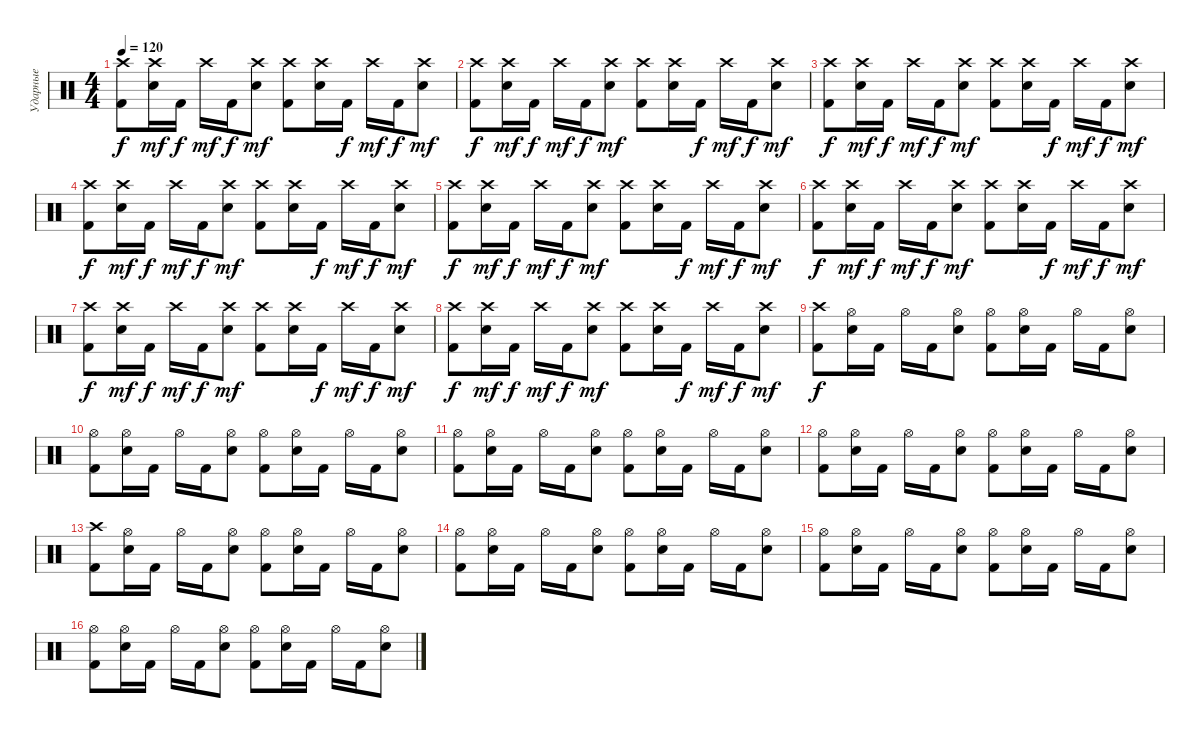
\track ("Ударные" "Ударные") {instrument percussion}
\staff {score}
\articulation defaults
\ts (4 4)
\tempo 120
\clef neutral
\ks c
("Crash high (hit)" "Kick (hit) 2").8{dy f} ("Crash high (hit)" "Electric Snare (hit)").16{dy mf} "Kick (hit) 2".16{dy f} "Crash high (hit)".16{dy mf} "Kick (hit) 2".16{dy f} ("Crash high (hit)" "Electric Snare (hit)").8{dy mf} ("Crash high (hit)" "Kick (hit) 2").8 ("Crash high (hit)" "Electric Snare (hit)").16 "Kick (hit) 2".16{dy f} "Crash high (hit)".16{dy mf} "Kick (hit) 2".16{dy f} ("Crash high (hit)" "Electric Snare (hit)").8{dy mf} |
("Crash high (hit)" "Kick (hit) 2").8{dy f} ("Crash high (hit)" "Electric Snare (hit)").16{dy mf} "Kick (hit) 2".16{dy f} "Crash high (hit)".16{dy mf} "Kick (hit) 2".16{dy f} ("Crash high (hit)" "Electric Snare (hit)").8{dy mf} ("Crash high (hit)" "Kick (hit) 2").8 ("Crash high (hit)" "Electric Snare (hit)").16 "Kick (hit) 2".16{dy f} "Crash high (hit)".16{dy mf} "Kick (hit) 2".16{dy f} ("Crash high (hit)" "Electric Snare (hit)").8{dy mf} |
("Crash high (hit)" "Kick (hit) 2").8{dy f} ("Crash high (hit)" "Electric Snare (hit)").16{dy mf} "Kick (hit) 2".16{dy f} "Crash high (hit)".16{dy mf} "Kick (hit) 2".16{dy f} ("Crash high (hit)" "Electric Snare (hit)").8{dy mf} ("Crash high (hit)" "Kick (hit) 2").8 ("Crash high (hit)" "Electric Snare (hit)").16 "Kick (hit) 2".16{dy f} "Crash high (hit)".16{dy mf} "Kick (hit) 2".16{dy f} ("Crash high (hit)" "Electric Snare (hit)").8{dy mf} |
("Crash high (hit)" "Kick (hit) 2").8{dy f} ("Crash high (hit)" "Electric Snare (hit)").16{dy mf} "Kick (hit) 2".16{dy f} "Crash high (hit)".16{dy mf} "Kick (hit) 2".16{dy f} ("Crash high (hit)" "Electric Snare (hit)").8{dy mf} ("Crash high (hit)" "Kick (hit) 2").8 ("Crash high (hit)" "Electric Snare (hit)").16 "Kick (hit) 2".16{dy f} "Crash high (hit)".16{dy mf} "Kick (hit) 2".16{dy f} ("Crash high (hit)" "Electric Snare (hit)").8{dy mf} |
("Crash high (hit)" "Kick (hit) 2").8{dy f} ("Crash high (hit)" "Electric Snare (hit)").16{dy mf} "Kick (hit) 2".16{dy f} "Crash high (hit)".16{dy mf} "Kick (hit) 2".16{dy f} ("Crash high (hit)" "Electric Snare (hit)").8{dy mf} ("Crash high (hit)" "Kick (hit) 2").8 ("Crash high (hit)" "Electric Snare (hit)").16 "Kick (hit) 2".16{dy f} "Crash high (hit)".16{dy mf} "Kick (hit) 2".16{dy f} ("Crash high (hit)" "Electric Snare (hit)").8{dy mf} |
("Crash high (hit)" "Kick (hit) 2").8{dy f} ("Crash high (hit)" "Electric Snare (hit)").16{dy mf} "Kick (hit) 2".16{dy f} "Crash high (hit)".16{dy mf} "Kick (hit) 2".16{dy f} ("Crash high (hit)" "Electric Snare (hit)").8{dy mf} ("Crash high (hit)" "Kick (hit) 2").8 ("Crash high (hit)" "Electric Snare (hit)").16 "Kick (hit) 2".16{dy f} "Crash high (hit)".16{dy mf} "Kick (hit) 2".16{dy f} ("Crash high (hit)" "Electric Snare (hit)").8{dy mf} |
("Crash high (hit)" "Kick (hit) 2").8{dy f} ("Crash high (hit)" "Electric Snare (hit)").16{dy mf} "Kick (hit) 2".16{dy f} "Crash high (hit)".16{dy mf} "Kick (hit) 2".16{dy f} ("Crash high (hit)" "Electric Snare (hit)").8{dy mf} ("Crash high (hit)" "Kick (hit) 2").8 ("Crash high (hit)" "Electric Snare (hit)").16 "Kick (hit) 2".16{dy f} "Crash high (hit)".16{dy mf} "Kick (hit) 2".16{dy f} ("Crash high (hit)" "Electric Snare (hit)").8{dy mf} |
("Crash high (hit)" "Kick (hit) 2").8{dy f} ("Crash high (hit)" "Electric Snare (hit)").16{dy mf} "Kick (hit) 2".16{dy f} "Crash high (hit)".16{dy mf} "Kick (hit) 2".16{dy f} ("Crash high (hit)" "Electric Snare (hit)").8{dy mf} ("Crash high (hit)" "Kick (hit) 2").8 ("Crash high (hit)" "Electric Snare (hit)").16 "Kick (hit) 2".16{dy f} "Crash high (hit)".16{dy mf} "Kick (hit) 2".16{dy f} ("Crash high (hit)" "Electric Snare (hit)").8{dy mf} |
("Crash high (hit)" "Kick (hit) 2").8{dy f} ("Hi-Hat (open)" "Electric Snare (hit)").16 "Kick (hit) 2".16 "Hi-Hat (open)".16 "Kick (hit) 2".16 ("Hi-Hat (open)" "Electric Snare (hit)").8 ("Hi-Hat (open)" "Kick (hit) 2").8 ("Hi-Hat (open)" "Electric Snare (hit)").16 "Kick (hit) 2".16 "Hi-Hat (open)".16 "Kick (hit) 2".16 ("Hi-Hat (open)" "Electric Snare (hit)").8 |
("Hi-Hat (open)" "Kick (hit) 2").8 ("Hi-Hat (open)" "Electric Snare (hit)").16 "Kick (hit) 2".16 "Hi-Hat (open)".16 "Kick (hit) 2".16 ("Hi-Hat (open)" "Electric Snare (hit)").8 ("Hi-Hat (open)" "Kick (hit) 2").8 ("Hi-Hat (open)" "Electric Snare (hit)").16 "Kick (hit) 2".16 "Hi-Hat (open)".16 "Kick (hit) 2".16 ("Hi-Hat (open)" "Electric Snare (hit)").8 |
("Hi-Hat (open)" "Kick (hit) 2").8 ("Hi-Hat (open)" "Electric Snare (hit)").16 "Kick (hit) 2".16 "Hi-Hat (open)".16 "Kick (hit) 2".16 ("Hi-Hat (open)" "Electric Snare (hit)").8 ("Hi-Hat (open)" "Kick (hit) 2").8 ("Hi-Hat (open)" "Electric Snare (hit)").16 "Kick (hit) 2".16 "Hi-Hat (open)".16 "Kick (hit) 2".16 ("Hi-Hat (open)" "Electric Snare (hit)").8 |
("Hi-Hat (open)" "Kick (hit) 2").8 ("Hi-Hat (open)" "Electric Snare (hit)").16 "Kick (hit) 2".16 "Hi-Hat (open)".16 "Kick (hit) 2".16 ("Hi-Hat (open)" "Electric Snare (hit)").8 ("Hi-Hat (open)" "Kick (hit) 2").8 ("Hi-Hat (open)" "Electric Snare (hit)").16 "Kick (hit) 2".16 "Hi-Hat (open)".16 "Kick (hit) 2".16 ("Hi-Hat (open)" "Electric Snare (hit)").8 |
("Crash high (hit)" "Kick (hit) 2").8 ("Hi-Hat (open)" "Electric Snare (hit)").16 "Kick (hit) 2".16 "Hi-Hat (open)".16 "Kick (hit) 2".16 ("Hi-Hat (open)" "Electric Snare (hit)").8 ("Hi-Hat (open)" "Kick (hit) 2").8 ("Hi-Hat (open)" "Electric Snare (hit)").16 "Kick (hit) 2".16 "Hi-Hat (open)".16 "Kick (hit) 2".16 ("Hi-Hat (open)" "Electric Snare (hit)").8 |
("Hi-Hat (open)" "Kick (hit) 2").8 ("Hi-Hat (open)" "Electric Snare (hit)").16 "Kick (hit) 2".16 "Hi-Hat (open)".16 "Kick (hit) 2".16 ("Hi-Hat (open)" "Electric Snare (hit)").8 ("Hi-Hat (open)" "Kick (hit) 2").8 ("Hi-Hat (open)" "Electric Snare (hit)").16 "Kick (hit) 2".16 "Hi-Hat (open)".16 "Kick (hit) 2".16 ("Hi-Hat (open)" "Electric Snare (hit)").8 |
("Hi-Hat (open)" "Kick (hit) 2").8 ("Hi-Hat (open)" "Electric Snare (hit)").16 "Kick (hit) 2".16 "Hi-Hat (open)".16 "Kick (hit) 2".16 ("Hi-Hat (open)" "Electric Snare (hit)").8 ("Hi-Hat (open)" "Kick (hit) 2").8 ("Hi-Hat (open)" "Electric Snare (hit)").16 "Kick (hit) 2".16 "Hi-Hat (open)".16 "Kick (hit) 2".16 ("Hi-Hat (open)" "Electric Snare (hit)").8 |
("Hi-Hat (open)" "Kick (hit) 2").8 ("Hi-Hat (open)" "Electric Snare (hit)").16 "Kick (hit) 2".16 "Hi-Hat (open)".16 "Kick (hit) 2".16 ("Hi-Hat (open)" "Electric Snare (hit)").8 ("Hi-Hat (open)" "Kick (hit) 2").8 ("Hi-Hat (open)" "Electric Snare (hit)").16 "Kick (hit) 2".16 "Hi-Hat (open)".16 "Kick (hit) 2".16 ("Hi-Hat (open)" "Electric Snare (hit)").8
